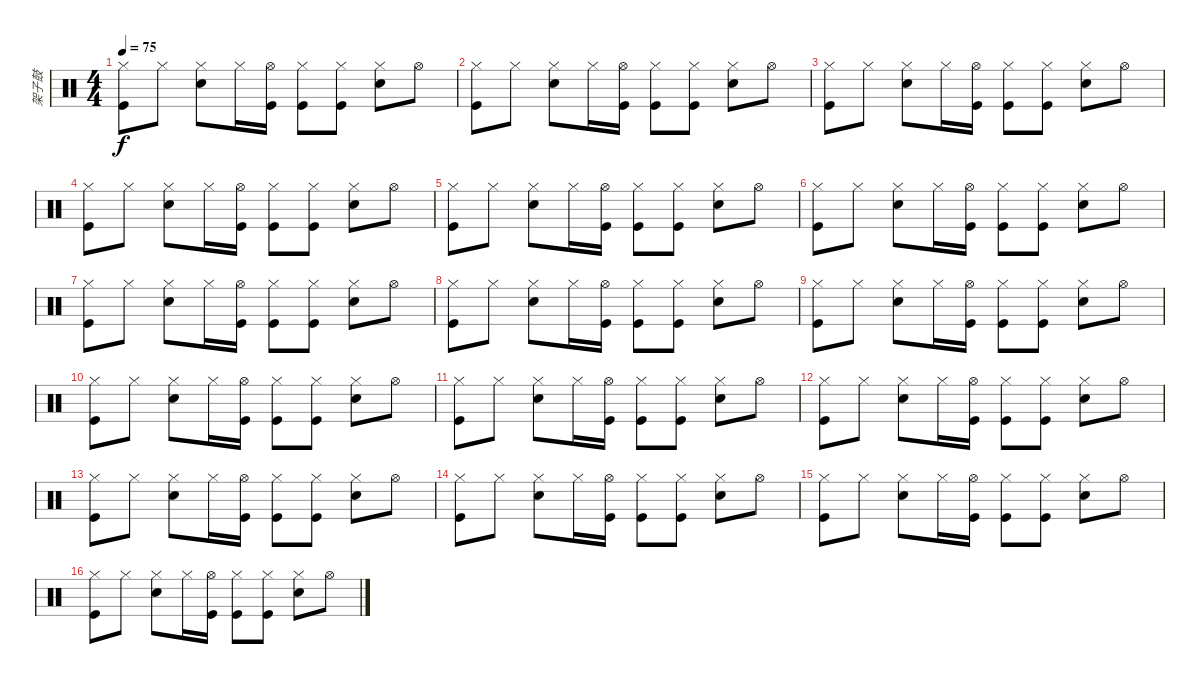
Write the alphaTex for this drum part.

\track ("架子鼓" "架子鼓") {instrument percussion}
\staff {score}
\articulation defaults
\ts (4 4)
\tempo 75
\clef neutral
\ks c
("Hi-Hat (closed)" "Kick (hit)").8{dy f} "Hi-Hat (closed)".8 ("Hi-Hat (closed)" "Snare (hit) 2").8 "Hi-Hat (closed)".16 ("Hi-Hat (open)" "Kick (hit)").16 ("Hi-Hat (closed)" "Kick (hit)").8 ("Hi-Hat (closed)" "Kick (hit)").8 ("Hi-Hat (closed)" "Snare (hit) 2").8 "Hi-Hat (open)".8 |
("Hi-Hat (closed)" "Kick (hit)").8 "Hi-Hat (closed)".8 ("Hi-Hat (closed)" "Snare (hit) 2").8 "Hi-Hat (closed)".16 ("Hi-Hat (open)" "Kick (hit)").16 ("Hi-Hat (closed)" "Kick (hit)").8 ("Hi-Hat (closed)" "Kick (hit)").8 ("Hi-Hat (closed)" "Snare (hit) 2").8 "Hi-Hat (open)".8 |
("Hi-Hat (closed)" "Kick (hit)").8 "Hi-Hat (closed)".8 ("Hi-Hat (closed)" "Snare (hit) 2").8 "Hi-Hat (closed)".16 ("Hi-Hat (open)" "Kick (hit)").16 ("Hi-Hat (closed)" "Kick (hit)").8 ("Hi-Hat (closed)" "Kick (hit)").8 ("Hi-Hat (closed)" "Snare (hit) 2").8 "Hi-Hat (open)".8 |
("Hi-Hat (closed)" "Kick (hit)").8 "Hi-Hat (closed)".8 ("Hi-Hat (closed)" "Snare (hit) 2").8 "Hi-Hat (closed)".16 ("Hi-Hat (open)" "Kick (hit)").16 ("Hi-Hat (closed)" "Kick (hit)").8 ("Hi-Hat (closed)" "Kick (hit)").8 ("Hi-Hat (closed)" "Snare (hit) 2").8 "Hi-Hat (open)".8 |
("Hi-Hat (closed)" "Kick (hit)").8 "Hi-Hat (closed)".8 ("Hi-Hat (closed)" "Snare (hit) 2").8 "Hi-Hat (closed)".16 ("Hi-Hat (open)" "Kick (hit)").16 ("Hi-Hat (closed)" "Kick (hit)").8 ("Hi-Hat (closed)" "Kick (hit)").8 ("Hi-Hat (closed)" "Snare (hit) 2").8 "Hi-Hat (open)".8 |
("Hi-Hat (closed)" "Kick (hit)").8 "Hi-Hat (closed)".8 ("Hi-Hat (closed)" "Snare (hit) 2").8 "Hi-Hat (closed)".16 ("Hi-Hat (open)" "Kick (hit)").16 ("Hi-Hat (closed)" "Kick (hit)").8 ("Hi-Hat (closed)" "Kick (hit)").8 ("Hi-Hat (closed)" "Snare (hit) 2").8 "Hi-Hat (open)".8 |
("Hi-Hat (closed)" "Kick (hit)").8 "Hi-Hat (closed)".8 ("Hi-Hat (closed)" "Snare (hit) 2").8 "Hi-Hat (closed)".16 ("Hi-Hat (open)" "Kick (hit)").16 ("Hi-Hat (closed)" "Kick (hit)").8 ("Hi-Hat (closed)" "Kick (hit)").8 ("Hi-Hat (closed)" "Snare (hit) 2").8 "Hi-Hat (open)".8 |
("Hi-Hat (closed)" "Kick (hit)").8 "Hi-Hat (closed)".8 ("Hi-Hat (closed)" "Snare (hit) 2").8 "Hi-Hat (closed)".16 ("Hi-Hat (open)" "Kick (hit)").16 ("Hi-Hat (closed)" "Kick (hit)").8 ("Hi-Hat (closed)" "Kick (hit)").8 ("Hi-Hat (closed)" "Snare (hit) 2").8 "Hi-Hat (open)".8 |
("Hi-Hat (closed)" "Kick (hit)").8 "Hi-Hat (closed)".8 ("Hi-Hat (closed)" "Snare (hit) 2").8 "Hi-Hat (closed)".16 ("Hi-Hat (open)" "Kick (hit)").16 ("Hi-Hat (closed)" "Kick (hit)").8 ("Hi-Hat (closed)" "Kick (hit)").8 ("Hi-Hat (closed)" "Snare (hit) 2").8 "Hi-Hat (open)".8 |
("Hi-Hat (closed)" "Kick (hit)").8 "Hi-Hat (closed)".8 ("Hi-Hat (closed)" "Snare (hit) 2").8 "Hi-Hat (closed)".16 ("Hi-Hat (open)" "Kick (hit)").16 ("Hi-Hat (closed)" "Kick (hit)").8 ("Hi-Hat (closed)" "Kick (hit)").8 ("Hi-Hat (closed)" "Snare (hit) 2").8 "Hi-Hat (open)".8 |
("Hi-Hat (closed)" "Kick (hit)").8 "Hi-Hat (closed)".8 ("Hi-Hat (closed)" "Snare (hit) 2").8 "Hi-Hat (closed)".16 ("Hi-Hat (open)" "Kick (hit)").16 ("Hi-Hat (closed)" "Kick (hit)").8 ("Hi-Hat (closed)" "Kick (hit)").8 ("Hi-Hat (closed)" "Snare (hit) 2").8 "Hi-Hat (open)".8 |
("Hi-Hat (closed)" "Kick (hit)").8 "Hi-Hat (closed)".8 ("Hi-Hat (closed)" "Snare (hit) 2").8 "Hi-Hat (closed)".16 ("Hi-Hat (open)" "Kick (hit)").16 ("Hi-Hat (closed)" "Kick (hit)").8 ("Hi-Hat (closed)" "Kick (hit)").8 ("Hi-Hat (closed)" "Snare (hit) 2").8 "Hi-Hat (open)".8 |
("Hi-Hat (closed)" "Kick (hit)").8 "Hi-Hat (closed)".8 ("Hi-Hat (closed)" "Snare (hit) 2").8 "Hi-Hat (closed)".16 ("Hi-Hat (open)" "Kick (hit)").16 ("Hi-Hat (closed)" "Kick (hit)").8 ("Hi-Hat (closed)" "Kick (hit)").8 ("Hi-Hat (closed)" "Snare (hit) 2").8 "Hi-Hat (open)".8 |
("Hi-Hat (closed)" "Kick (hit)").8 "Hi-Hat (closed)".8 ("Hi-Hat (closed)" "Snare (hit) 2").8 "Hi-Hat (closed)".16 ("Hi-Hat (open)" "Kick (hit)").16 ("Hi-Hat (closed)" "Kick (hit)").8 ("Hi-Hat (closed)" "Kick (hit)").8 ("Hi-Hat (closed)" "Snare (hit) 2").8 "Hi-Hat (open)".8 |
("Hi-Hat (closed)" "Kick (hit)").8 "Hi-Hat (closed)".8 ("Hi-Hat (closed)" "Snare (hit) 2").8 "Hi-Hat (closed)".16 ("Hi-Hat (open)" "Kick (hit)").16 ("Hi-Hat (closed)" "Kick (hit)").8 ("Hi-Hat (closed)" "Kick (hit)").8 ("Hi-Hat (closed)" "Snare (hit) 2").8 "Hi-Hat (open)".8 |
("Hi-Hat (closed)" "Kick (hit)").8 "Hi-Hat (closed)".8 ("Hi-Hat (closed)" "Snare (hit) 2").8 "Hi-Hat (closed)".16 ("Hi-Hat (open)" "Kick (hit)").16 ("Hi-Hat (closed)" "Kick (hit)").8 ("Hi-Hat (closed)" "Kick (hit)").8 ("Hi-Hat (closed)" "Snare (hit) 2").8 "Hi-Hat (open)".8
